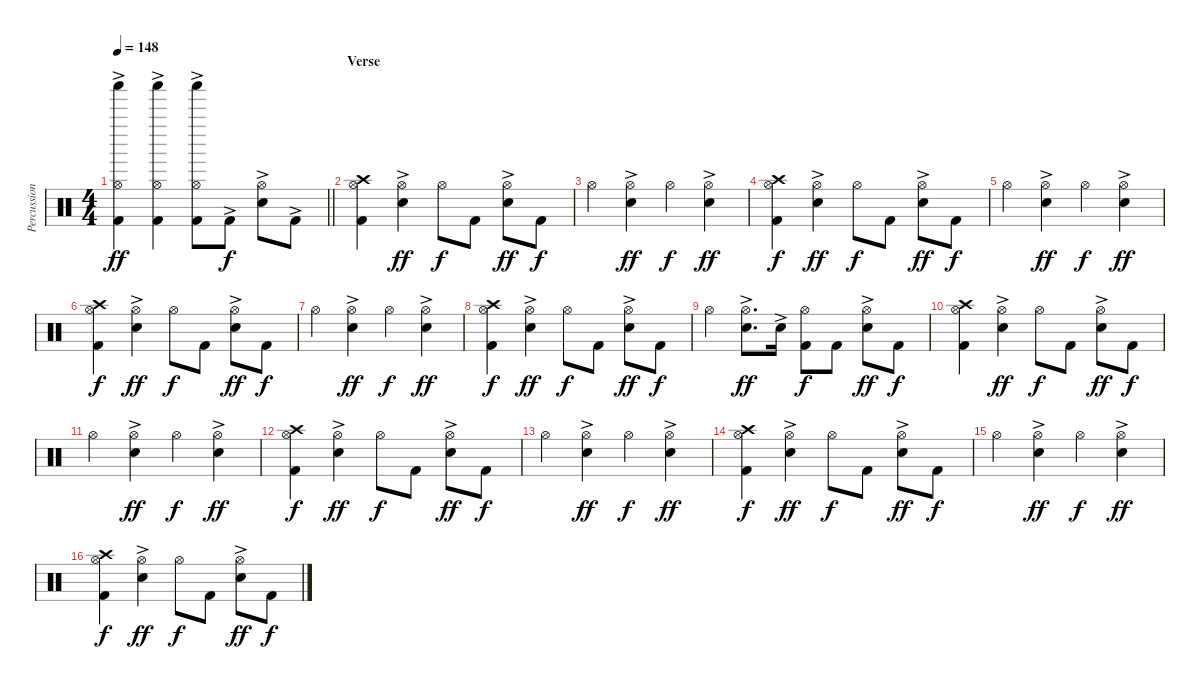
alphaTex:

\track ("Percussion" "Percussion") {instrument percussion}
\staff {score}
\articulation defaults
\ts (4 4)
\tempo 148
\clef neutral
\barLineRight lightlight
\ks c
("Shaker (hit)" "Hi-Hat (open)" "Kick (hit) 2"{ac}).4{dy ff} ("Shaker (hit)" "Hi-Hat (open)" "Kick (hit) 2"{ac}).4 ("Shaker (hit)" "Hi-Hat (open)" "Kick (hit) 2"{ac}).8 "Kick (hit) 2"{ac}.8{dy f} ("Hi-Hat (open)" "Electric Snare (hit)"{ac}).8 "Kick (hit) 2"{ac}.8 |
\section ("" "Verse")
("Crash high (hit)" "Hi-Hat (open)" "Kick (hit) 2").4 ("Hi-Hat (open)" "Electric Snare (hit)"{ac}).4{dy ff} "Hi-Hat (open)".8{dy f} "Kick (hit) 2".8 ("Hi-Hat (open)" "Electric Snare (hit)"{ac}).8{dy ff} "Kick (hit) 2".8{dy f} |
"Hi-Hat (open)".4 ("Hi-Hat (open)" "Electric Snare (hit)"{ac}).4{dy ff} "Hi-Hat (open)".4{dy f} ("Hi-Hat (open)" "Electric Snare (hit)"{ac}).4{dy ff} |
("Crash high (hit)" "Hi-Hat (open)" "Kick (hit) 2").4{dy f} ("Hi-Hat (open)" "Electric Snare (hit)"{ac}).4{dy ff} "Hi-Hat (open)".8{dy f} "Kick (hit) 2".8 ("Hi-Hat (open)" "Electric Snare (hit)"{ac}).8{dy ff} "Kick (hit) 2".8{dy f} |
"Hi-Hat (open)".4 ("Hi-Hat (open)" "Electric Snare (hit)"{ac}).4{dy ff} "Hi-Hat (open)".4{dy f} ("Hi-Hat (open)" "Electric Snare (hit)"{ac}).4{dy ff} |
("Crash high (hit)" "Hi-Hat (open)" "Kick (hit) 2").4{dy f} ("Hi-Hat (open)" "Electric Snare (hit)"{ac}).4{dy ff} "Hi-Hat (open)".8{dy f} "Kick (hit) 2".8 ("Hi-Hat (open)" "Electric Snare (hit)"{ac}).8{dy ff} "Kick (hit) 2".8{dy f} |
"Hi-Hat (open)".4 ("Hi-Hat (open)" "Electric Snare (hit)"{ac}).4{dy ff} "Hi-Hat (open)".4{dy f} ("Hi-Hat (open)" "Electric Snare (hit)"{ac}).4{dy ff} |
("Crash high (hit)" "Hi-Hat (open)" "Kick (hit) 2").4{dy f} ("Hi-Hat (open)" "Electric Snare (hit)"{ac}).4{dy ff} "Hi-Hat (open)".8{dy f} "Kick (hit) 2".8 ("Hi-Hat (open)" "Electric Snare (hit)"{ac}).8{dy ff} "Kick (hit) 2".8{dy f} |
"Hi-Hat (open)".4 ("Hi-Hat (open)" "Electric Snare (hit)"{ac}).8{d dy ff} "Electric Snare (hit)"{ac}.16 ("Hi-Hat (open)" "Kick (hit) 2").8{dy f} "Kick (hit) 2".8 ("Hi-Hat (open)" "Electric Snare (hit)"{ac}).8{dy ff} "Kick (hit) 2".8{dy f} |
("Crash high (hit)" "Hi-Hat (open)" "Kick (hit) 2").4 ("Hi-Hat (open)" "Electric Snare (hit)"{ac}).4{dy ff} "Hi-Hat (open)".8{dy f} "Kick (hit) 2".8 ("Hi-Hat (open)" "Electric Snare (hit)"{ac}).8{dy ff} "Kick (hit) 2".8{dy f} |
"Hi-Hat (open)".4 ("Hi-Hat (open)" "Electric Snare (hit)"{ac}).4{dy ff} "Hi-Hat (open)".4{dy f} ("Hi-Hat (open)" "Electric Snare (hit)"{ac}).4{dy ff} |
("Crash high (hit)" "Hi-Hat (open)" "Kick (hit) 2").4{dy f} ("Hi-Hat (open)" "Electric Snare (hit)"{ac}).4{dy ff} "Hi-Hat (open)".8{dy f} "Kick (hit) 2".8 ("Hi-Hat (open)" "Electric Snare (hit)"{ac}).8{dy ff} "Kick (hit) 2".8{dy f} |
"Hi-Hat (open)".4 ("Hi-Hat (open)" "Electric Snare (hit)"{ac}).4{dy ff} "Hi-Hat (open)".4{dy f} ("Hi-Hat (open)" "Electric Snare (hit)"{ac}).4{dy ff} |
("Crash high (hit)" "Hi-Hat (open)" "Kick (hit) 2").4{dy f} ("Hi-Hat (open)" "Electric Snare (hit)"{ac}).4{dy ff} "Hi-Hat (open)".8{dy f} "Kick (hit) 2".8 ("Hi-Hat (open)" "Electric Snare (hit)"{ac}).8{dy ff} "Kick (hit) 2".8{dy f} |
"Hi-Hat (open)".4 ("Hi-Hat (open)" "Electric Snare (hit)"{ac}).4{dy ff} "Hi-Hat (open)".4{dy f} ("Hi-Hat (open)" "Electric Snare (hit)"{ac}).4{dy ff} |
("Crash high (hit)" "Hi-Hat (open)" "Kick (hit) 2").4{dy f} ("Hi-Hat (open)" "Electric Snare (hit)"{ac}).4{dy ff} "Hi-Hat (open)".8{dy f} "Kick (hit) 2".8 ("Hi-Hat (open)" "Electric Snare (hit)"{ac}).8{dy ff} "Kick (hit) 2".8{dy f}
